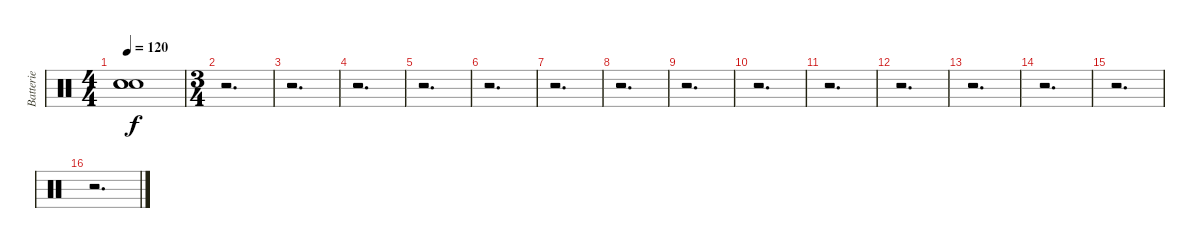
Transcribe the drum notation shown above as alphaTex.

\track ("Batterie" "Batterie") {instrument percussion}
\staff {score}
\articulation defaults
\ts (4 4)
\tempo 120
\clef neutral
\ks c
("Snare (hit)"{t} "Snare (hit)"{t} "Snare (hit)"{t}).1{dy f volume 3} |
\ts (3 4)
r.2{d} |
r.2{d} |
r.2{d} |
r.2{d} |
r.2{d} |
r.2{d} |
r.2{d} |
r.2{d} |
r.2{d} |
r.2{d} |
r.2{d} |
r.2{d} |
r.2{d} |
r.2{d} |
r.2{d}
